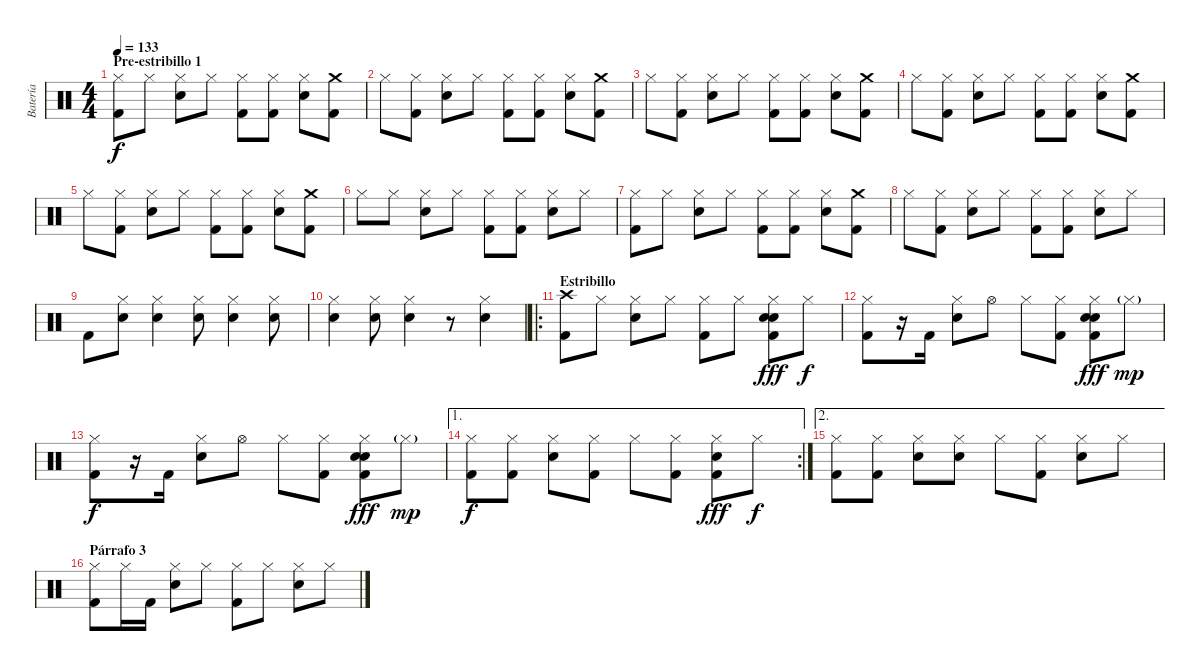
\track ("Batería" "Batería") {instrument percussion}
\staff {score}
\articulation defaults
\ts (4 4)
\section ("" "Pre-estribillo 1")
\tempo 133
\clef neutral
\ks c
("Hi-Hat (closed)" "Kick (hit) 2").8{dy f} "Hi-Hat (closed)".8 ("Hi-Hat (closed)" "Snare (hit) 2").8 "Hi-Hat (closed)".8 ("Hi-Hat (closed)" "Kick (hit) 2").8 ("Hi-Hat (closed)" "Kick (hit) 2").8 ("Hi-Hat (closed)" "Snare (hit) 2").8 ("Crash medium (hit)" "Kick (hit) 2").8 |
"Hi-Hat (closed)".8 ("Hi-Hat (closed)" "Kick (hit) 2").8 ("Hi-Hat (closed)" "Snare (hit) 2").8 "Hi-Hat (closed)".8 ("Hi-Hat (closed)" "Kick (hit) 2").8 ("Hi-Hat (closed)" "Kick (hit) 2").8 ("Hi-Hat (closed)" "Snare (hit) 2").8 ("Crash medium (hit)" "Kick (hit) 2").8 |
"Hi-Hat (closed)".8 ("Hi-Hat (closed)" "Kick (hit) 2").8 ("Hi-Hat (closed)" "Snare (hit) 2").8 "Hi-Hat (closed)".8 ("Hi-Hat (closed)" "Kick (hit) 2").8 ("Hi-Hat (closed)" "Kick (hit) 2").8 ("Hi-Hat (closed)" "Snare (hit) 2").8 ("Crash medium (hit)" "Kick (hit) 2").8 |
"Hi-Hat (closed)".8 ("Hi-Hat (closed)" "Kick (hit) 2").8 ("Hi-Hat (closed)" "Snare (hit) 2").8 "Hi-Hat (closed)".8 ("Hi-Hat (closed)" "Kick (hit) 2").8 ("Hi-Hat (closed)" "Kick (hit) 2").8 ("Hi-Hat (closed)" "Snare (hit) 2").8 ("Crash medium (hit)" "Kick (hit) 2").8 |
"Hi-Hat (closed)".8 ("Hi-Hat (closed)" "Kick (hit) 2").8 ("Hi-Hat (closed)" "Snare (hit) 2").8 "Hi-Hat (closed)".8 ("Hi-Hat (closed)" "Kick (hit) 2").8 ("Hi-Hat (closed)" "Kick (hit) 2").8 ("Hi-Hat (closed)" "Snare (hit) 2").8 ("Crash medium (hit)" "Kick (hit) 2").8 |
"Hi-Hat (closed)".8 "Hi-Hat (closed)".8 ("Hi-Hat (closed)" "Snare (hit) 2").8 "Hi-Hat (closed)".8 ("Hi-Hat (closed)" "Kick (hit) 2").8 ("Hi-Hat (closed)" "Kick (hit) 2").8 ("Hi-Hat (closed)" "Snare (hit) 2").8 "Hi-Hat (closed)".8 |
("Hi-Hat (closed)" "Kick (hit) 2").8 "Hi-Hat (closed)".8 ("Hi-Hat (closed)" "Snare (hit) 2").8 "Hi-Hat (closed)".8 ("Hi-Hat (closed)" "Kick (hit) 2").8 ("Hi-Hat (closed)" "Kick (hit) 2").8 ("Hi-Hat (closed)" "Snare (hit) 2").8 ("Crash medium (hit)" "Kick (hit) 2").8 |
"Hi-Hat (closed)".8 ("Hi-Hat (closed)" "Kick (hit) 2").8 ("Hi-Hat (closed)" "Snare (hit) 2").8 "Hi-Hat (closed)".8 ("Hi-Hat (closed)" "Kick (hit) 2").8 ("Hi-Hat (closed)" "Kick (hit) 2").8 ("Hi-Hat (closed)" "Snare (hit) 2").8 "Hi-Hat (closed)".8 |
"Kick (hit) 2".8 ("Hi-Hat (closed)" "Snare (hit) 2").8 ("Hi-Hat (closed)" "Snare (hit) 2").4 ("Hi-Hat (closed)" "Snare (hit) 2").8 ("Hi-Hat (closed)" "Snare (hit) 2").4 ("Hi-Hat (closed)" "Snare (hit) 2").8 |
("Hi-Hat (closed)" "Snare (hit) 2").4 ("Hi-Hat (closed)" "Snare (hit) 2").8 ("Hi-Hat (closed)" "Snare (hit) 2").4 r.8 ("Hi-Hat (closed)" "Snare (hit) 2").4 |
\ro
\section ("" "Estribillo")
("Crash high (hit)" "Kick (hit) 2").8 "Hi-Hat (closed)".8 ("Hi-Hat (closed)" "Snare (hit) 2").8 "Hi-Hat (closed)".8 ("Hi-Hat (closed)" "Kick (hit) 2").8 "Hi-Hat (closed)".8 ("Hi-Hat (closed)" "Snare (hit) 2" "Snare (hit) 2" "Kick (hit) 2").8{dy fff} "Hi-Hat (closed)".8{dy f} |
("Hi-Hat (closed)" "Kick (hit) 2").8 r.16 "Kick (hit) 2".16 ("Hi-Hat (closed)" "Snare (hit) 2").8 "Hi-Hat (open)".8 "Hi-Hat (closed)".8 ("Hi-Hat (closed)" "Kick (hit) 2").8 ("Hi-Hat (closed)" "Snare (hit) 2" "Snare (hit) 2" "Kick (hit) 2").8{dy fff} "Hi-Hat (closed)"{g}.8{dy mp} |
("Hi-Hat (closed)" "Kick (hit) 2").8{dy f} r.16 "Kick (hit) 2".16 ("Hi-Hat (closed)" "Snare (hit) 2").8 "Hi-Hat (open)".8 "Hi-Hat (closed)".8 ("Hi-Hat (closed)" "Kick (hit) 2").8 ("Hi-Hat (closed)" "Snare (hit) 2" "Snare (hit) 2" "Kick (hit) 2").8{dy fff} "Hi-Hat (closed)"{g}.8{dy mp} |
\ae 1
\rc 2
("Hi-Hat (closed)" "Kick (hit) 2").8{dy f} ("Hi-Hat (closed)" "Kick (hit) 2").8 ("Hi-Hat (closed)" "Snare (hit) 2").8 ("Hi-Hat (closed)" "Kick (hit) 2").8 "Hi-Hat (closed)".8 ("Hi-Hat (closed)" "Kick (hit) 2").8 ("Hi-Hat (closed)" "Snare (hit) 2" "Kick (hit) 2").8{dy fff} "Hi-Hat (closed)".8{dy f} |
\ae 2
("Hi-Hat (closed)" "Kick (hit) 2").8 ("Hi-Hat (closed)" "Kick (hit) 2").8 ("Hi-Hat (closed)" "Snare (hit) 2").8 ("Hi-Hat (closed)" "Snare (hit) 2").8 "Hi-Hat (closed)".8 ("Hi-Hat (closed)" "Kick (hit) 2").8 ("Hi-Hat (closed)" "Snare (hit) 2").8 "Hi-Hat (closed)".8 |
\section ("" "Párrafo 3")
("Hi-Hat (closed)" "Kick (hit) 2").8 "Hi-Hat (closed)".16 "Kick (hit) 2".16 ("Hi-Hat (closed)" "Snare (hit) 2").8 "Hi-Hat (closed)".8 ("Hi-Hat (closed)" "Kick (hit) 2").8 "Hi-Hat (closed)".8 ("Hi-Hat (closed)" "Snare (hit) 2").8 "Hi-Hat (closed)".8
